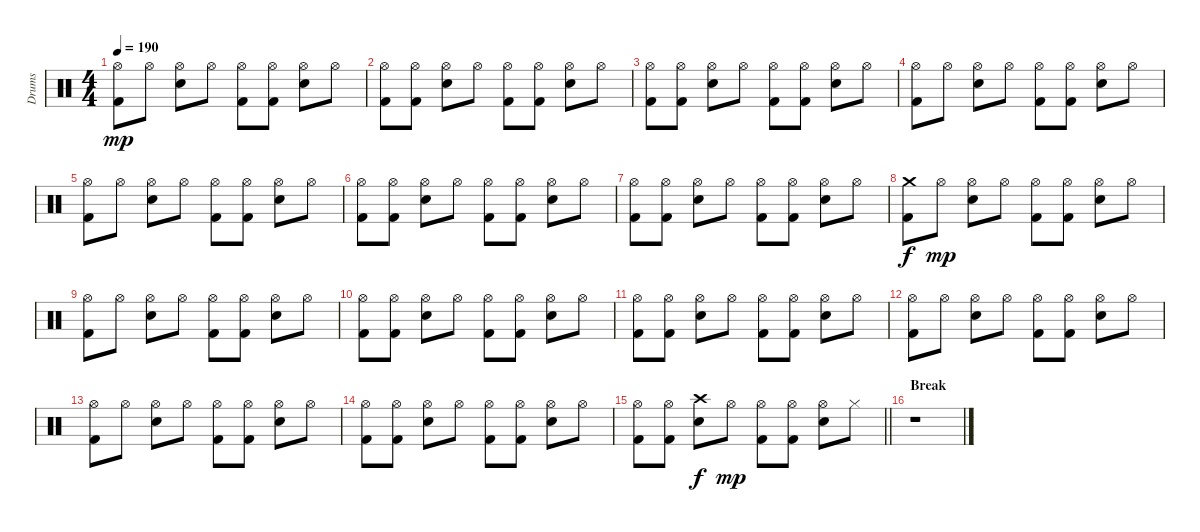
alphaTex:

\track ("Drums" "Drums") {instrument percussion}
\staff {score}
\articulation defaults
\ts (4 4)
\tempo 190
\clef neutral
\ks c
("Hi-Hat (open)" "Kick (hit) 2").8{dy mp} "Hi-Hat (open)".8 ("Hi-Hat (open)" "Snare (hit) 2").8 "Hi-Hat (open)".8 ("Hi-Hat (open)" "Kick (hit) 2").8 ("Hi-Hat (open)" "Kick (hit) 2").8 ("Hi-Hat (open)" "Snare (hit) 2").8 "Hi-Hat (open)".8 |
("Hi-Hat (open)" "Kick (hit) 2").8 ("Hi-Hat (open)" "Kick (hit) 2").8 ("Hi-Hat (open)" "Snare (hit) 2").8 "Hi-Hat (open)".8 ("Hi-Hat (open)" "Kick (hit) 2").8 ("Hi-Hat (open)" "Kick (hit) 2").8 ("Hi-Hat (open)" "Snare (hit) 2").8 "Hi-Hat (open)".8 |
("Hi-Hat (open)" "Kick (hit) 2").8 ("Hi-Hat (open)" "Kick (hit) 2").8 ("Hi-Hat (open)" "Snare (hit) 2").8 "Hi-Hat (open)".8 ("Hi-Hat (open)" "Kick (hit) 2").8 ("Hi-Hat (open)" "Kick (hit) 2").8 ("Hi-Hat (open)" "Snare (hit) 2").8 "Hi-Hat (open)".8 |
("Hi-Hat (open)" "Kick (hit) 2").8 "Hi-Hat (open)".8 ("Hi-Hat (open)" "Snare (hit) 2").8 "Hi-Hat (open)".8 ("Hi-Hat (open)" "Kick (hit) 2").8 ("Hi-Hat (open)" "Kick (hit) 2").8 ("Hi-Hat (open)" "Snare (hit) 2").8 "Hi-Hat (open)".8 |
("Hi-Hat (open)" "Kick (hit) 2").8 "Hi-Hat (open)".8 ("Hi-Hat (open)" "Snare (hit) 2").8 "Hi-Hat (open)".8 ("Hi-Hat (open)" "Kick (hit) 2").8 ("Hi-Hat (open)" "Kick (hit) 2").8 ("Hi-Hat (open)" "Snare (hit) 2").8 "Hi-Hat (open)".8 |
("Hi-Hat (open)" "Kick (hit) 2").8 ("Hi-Hat (open)" "Kick (hit) 2").8 ("Hi-Hat (open)" "Snare (hit) 2").8 "Hi-Hat (open)".8 ("Hi-Hat (open)" "Kick (hit) 2").8 ("Hi-Hat (open)" "Kick (hit) 2").8 ("Hi-Hat (open)" "Snare (hit) 2").8 "Hi-Hat (open)".8 |
("Hi-Hat (open)" "Kick (hit) 2").8 ("Hi-Hat (open)" "Kick (hit) 2").8 ("Hi-Hat (open)" "Snare (hit) 2").8 "Hi-Hat (open)".8 ("Hi-Hat (open)" "Kick (hit) 2").8 ("Hi-Hat (open)" "Kick (hit) 2").8 ("Hi-Hat (open)" "Snare (hit) 2").8 "Hi-Hat (open)".8 |
("Crash medium (hit)" "Kick (hit) 2").8{dy f} "Hi-Hat (open)".8{dy mp} ("Hi-Hat (open)" "Snare (hit) 2").8 "Hi-Hat (open)".8 ("Hi-Hat (open)" "Kick (hit) 2").8 ("Hi-Hat (open)" "Kick (hit) 2").8 ("Hi-Hat (open)" "Snare (hit) 2").8 "Hi-Hat (open)".8 |
("Hi-Hat (open)" "Kick (hit) 2").8 "Hi-Hat (open)".8 ("Hi-Hat (open)" "Snare (hit) 2").8 "Hi-Hat (open)".8 ("Hi-Hat (open)" "Kick (hit) 2").8 ("Hi-Hat (open)" "Kick (hit) 2").8 ("Hi-Hat (open)" "Snare (hit) 2").8 "Hi-Hat (open)".8 |
("Hi-Hat (open)" "Kick (hit) 2").8 ("Hi-Hat (open)" "Kick (hit) 2").8 ("Hi-Hat (open)" "Snare (hit) 2").8 "Hi-Hat (open)".8 ("Hi-Hat (open)" "Kick (hit) 2").8 ("Hi-Hat (open)" "Kick (hit) 2").8 ("Hi-Hat (open)" "Snare (hit) 2").8 "Hi-Hat (open)".8 |
("Hi-Hat (open)" "Kick (hit) 2").8 ("Hi-Hat (open)" "Kick (hit) 2").8 ("Hi-Hat (open)" "Snare (hit) 2").8 "Hi-Hat (open)".8 ("Hi-Hat (open)" "Kick (hit) 2").8 ("Hi-Hat (open)" "Kick (hit) 2").8 ("Hi-Hat (open)" "Snare (hit) 2").8 "Hi-Hat (open)".8 |
("Hi-Hat (open)" "Kick (hit) 2").8 "Hi-Hat (open)".8 ("Hi-Hat (open)" "Snare (hit) 2").8 "Hi-Hat (open)".8 ("Hi-Hat (open)" "Kick (hit) 2").8 ("Hi-Hat (open)" "Kick (hit) 2").8 ("Hi-Hat (open)" "Snare (hit) 2").8 "Hi-Hat (open)".8 |
("Hi-Hat (open)" "Kick (hit) 2").8 "Hi-Hat (open)".8 ("Hi-Hat (open)" "Snare (hit) 2").8 "Hi-Hat (open)".8 ("Hi-Hat (open)" "Kick (hit) 2").8 ("Hi-Hat (open)" "Kick (hit) 2").8 ("Hi-Hat (open)" "Snare (hit) 2").8 "Hi-Hat (open)".8 |
("Hi-Hat (open)" "Kick (hit) 2").8 ("Hi-Hat (open)" "Kick (hit) 2").8 ("Hi-Hat (open)" "Snare (hit) 2").8 "Hi-Hat (open)".8 ("Hi-Hat (open)" "Kick (hit) 2").8 ("Hi-Hat (open)" "Kick (hit) 2").8 ("Hi-Hat (open)" "Snare (hit) 2").8 "Hi-Hat (open)".8 |
\barLineRight lightlight
("Hi-Hat (open)" "Kick (hit) 2").8 ("Hi-Hat (open)" "Kick (hit) 2").8 ("Crash high (hit)" "Snare (hit) 2").8{dy f} "Hi-Hat (open)".8{dy mp} ("Hi-Hat (open)" "Kick (hit) 2").8 ("Hi-Hat (open)" "Kick (hit) 2").8 ("Hi-Hat (open)" "Snare (hit) 2").8 "Hi-Hat (closed)".8 |
\section ("" "Break")
r.1
